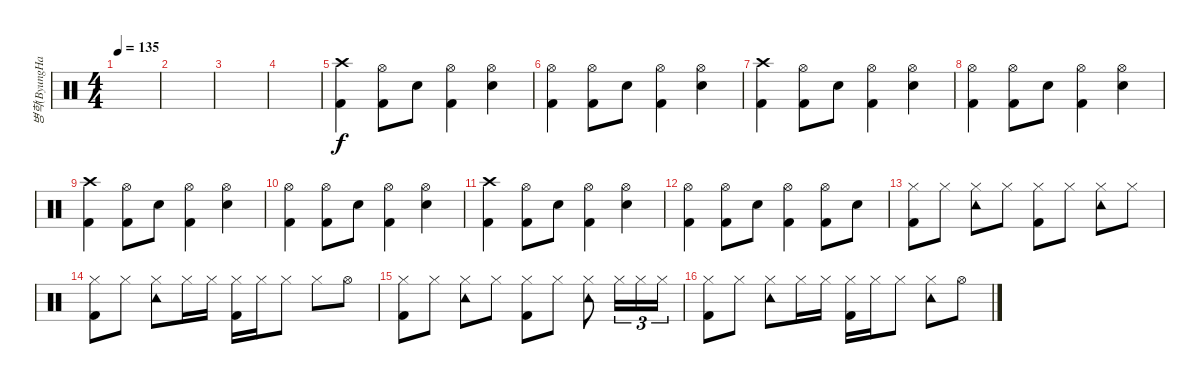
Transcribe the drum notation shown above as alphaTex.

\track ("병학(ByungHak)" "병학(ByungHa") {instrument percussion}
\staff {score}
\articulation defaults
\ts (4 4)
\tempo 135
\clef neutral
\ks c
|
|
|
|
("Crash high (hit)" "Kick (hit) 2").4 ("Hi-Hat (open)" "Kick (hit) 2").8 "Snare (hit) 2".8 ("Hi-Hat (open)" "Kick (hit) 2").4 ("Hi-Hat (open)" "Snare (hit) 2").4 |
("Hi-Hat (open)" "Kick (hit) 2").4 ("Hi-Hat (open)" "Kick (hit) 2").8 "Snare (hit) 2".8 ("Hi-Hat (open)" "Kick (hit) 2").4 ("Hi-Hat (open)" "Snare (hit) 2").4 |
("Crash high (hit)" "Kick (hit) 2").4 ("Hi-Hat (open)" "Kick (hit) 2").8 "Snare (hit) 2".8 ("Hi-Hat (open)" "Kick (hit) 2").4 ("Hi-Hat (open)" "Snare (hit) 2").4 |
("Hi-Hat (open)" "Kick (hit) 2").4 ("Hi-Hat (open)" "Kick (hit) 2").8 "Snare (hit) 2".8 ("Hi-Hat (open)" "Kick (hit) 2").4 ("Hi-Hat (open)" "Snare (hit) 2").4 |
("Crash high (hit)" "Kick (hit) 2").4 ("Hi-Hat (open)" "Kick (hit) 2").8 "Snare (hit) 2".8 ("Hi-Hat (open)" "Kick (hit) 2").4 ("Hi-Hat (open)" "Snare (hit) 2").4 |
("Hi-Hat (open)" "Kick (hit) 2").4 ("Hi-Hat (open)" "Kick (hit) 2").8 "Snare (hit) 2".8 ("Hi-Hat (open)" "Kick (hit) 2").4 ("Hi-Hat (open)" "Snare (hit) 2").4 |
("Crash high (hit)" "Kick (hit) 2").4 ("Hi-Hat (open)" "Kick (hit) 2").8 "Snare (hit) 2".8 ("Hi-Hat (open)" "Kick (hit) 2").4 ("Hi-Hat (open)" "Snare (hit) 2").4 |
("Hi-Hat (open)" "Kick (hit) 2").4 ("Hi-Hat (open)" "Kick (hit) 2").8 "Snare (hit) 2".8 ("Hi-Hat (open)" "Kick (hit) 2").4 ("Hi-Hat (open)" "Kick (hit) 2").8 "Snare (hit) 2".8 |
("Hi-Hat (closed)" "Kick (hit) 2").8 "Hi-Hat (closed)".8 ("Hi-Hat (closed)" "Tambourine (hit)").8 "Hi-Hat (closed)".8 ("Hi-Hat (closed)" "Kick (hit) 2").8 "Hi-Hat (closed)".8 ("Hi-Hat (closed)" "Tambourine (hit)").8 "Hi-Hat (closed)".8 |
("Hi-Hat (closed)" "Kick (hit) 2").8 "Hi-Hat (closed)".8 ("Hi-Hat (closed)" "Tambourine (hit)").8 "Hi-Hat (closed)".16 "Hi-Hat (closed)".16 ("Hi-Hat (closed)" "Kick (hit) 2").16 "Hi-Hat (closed)".16 "Hi-Hat (closed)".8 "Hi-Hat (closed)".8 "Hi-Hat (open)".8 |
("Hi-Hat (closed)" "Kick (hit) 2").8 "Hi-Hat (closed)".8 ("Hi-Hat (closed)" "Tambourine (hit)").8 "Hi-Hat (closed)".8 ("Hi-Hat (closed)" "Kick (hit) 2").8 "Hi-Hat (closed)".8 ("Hi-Hat (closed)" "Tambourine (hit)").8 "Hi-Hat (closed)".16{tu (3 2)} "Hi-Hat (closed)".16{tu (3 2)} "Hi-Hat (closed)".16{tu (3 2)} |
("Hi-Hat (closed)" "Kick (hit) 2").8 "Hi-Hat (closed)".8 ("Hi-Hat (closed)" "Tambourine (hit)").8 "Hi-Hat (closed)".16 "Hi-Hat (closed)".16 ("Hi-Hat (closed)" "Kick (hit) 2").16 "Hi-Hat (closed)".16 "Hi-Hat (closed)".8 ("Hi-Hat (closed)" "Tambourine (hit)").8 "Hi-Hat (open)".8
